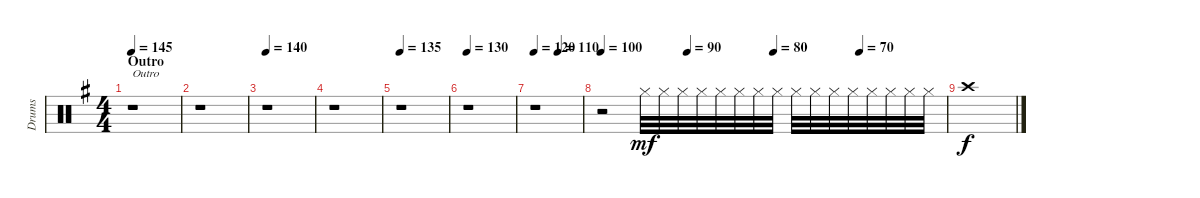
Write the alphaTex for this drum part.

\track ("Drums" "Drums") {instrument percussion}
\staff {score}
\articulation defaults
\ts (4 4)
\section ("" "Outro")
\tempo 145
\clef neutral
\ks g
r.1{txt "Outro" dy f} |
r.1 |
\tempo 140
r.1 |
r.1 |
\tempo 135
r.1 |
\tempo 130
r.1 |
\tempo 120
\tempo (110 0.5)
r.1 |
\tempo 100
\tempo (90 0.25)
\tempo (80 0.5)
\tempo (70 0.75)
r.2 "Hi-Hat (closed)".32{dy mf} "Hi-Hat (closed)".32 "Hi-Hat (closed)".32 "Hi-Hat (closed)".32 "Hi-Hat (closed)".32 "Hi-Hat (closed)".32 "Hi-Hat (closed)".32 "Hi-Hat (closed)".32 "Hi-Hat (closed)".32 "Hi-Hat (closed)".32 "Hi-Hat (closed)".32 "Hi-Hat (closed)".32 "Hi-Hat (closed)".32 "Hi-Hat (closed)".32 "Hi-Hat (closed)".32 "Hi-Hat (closed)".32 |
"Crash high (hit)".1{dy f}
